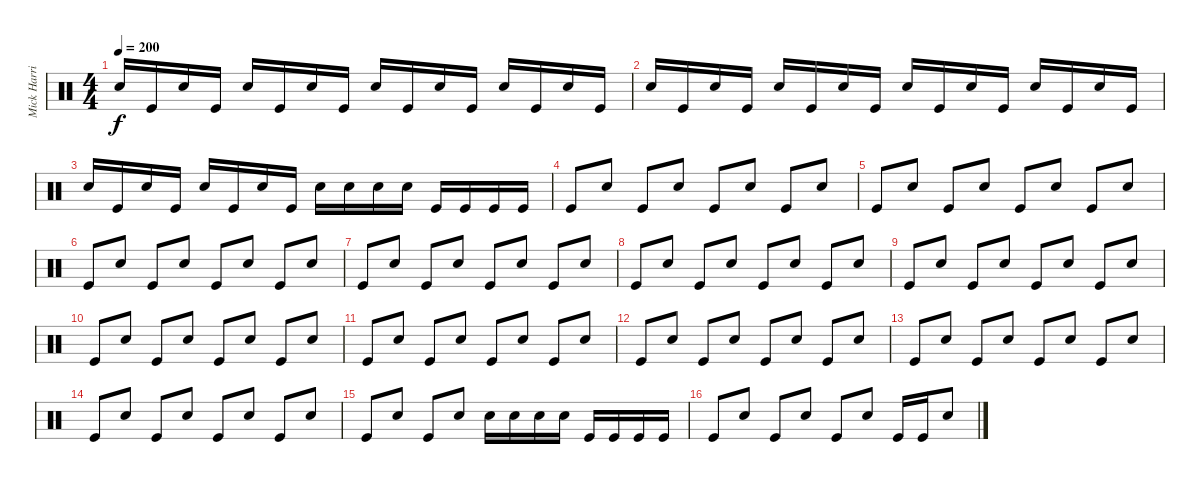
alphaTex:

\track ("Mick Harris" "Mick Harri") {instrument percussion}
\staff {score}
\articulation defaults
\ts (4 4)
\tempo 200
\clef neutral
\ks c "Snare (hit) 2".16{dy f} "Kick (hit)".16 "Snare (hit) 2".16 "Kick (hit)".16 "Snare (hit) 2".16 "Kick (hit)".16 "Snare (hit) 2".16 "Kick (hit)".16 "Snare (hit) 2".16 "Kick (hit)".16 "Snare (hit) 2".16 "Kick (hit)".16 "Snare (hit) 2".16 "Kick (hit)".16 "Snare (hit) 2".16 "Kick (hit)".16
|
"Snare (hit) 2".16 "Kick (hit)".16 "Snare (hit) 2".16 "Kick (hit)".16 "Snare (hit) 2".16 "Kick (hit)".16 "Snare (hit) 2".16 "Kick (hit)".16 "Snare (hit) 2".16 "Kick (hit)".16 "Snare (hit) 2".16 "Kick (hit)".16 "Snare (hit) 2".16 "Kick (hit)".16 "Snare (hit) 2".16 "Kick (hit)".16 |
"Snare (hit) 2".16 "Kick (hit)".16 "Snare (hit) 2".16 "Kick (hit)".16 "Snare (hit) 2".16 "Kick (hit)".16 "Snare (hit) 2".16 "Kick (hit)".16 "Snare (hit) 2".16 "Snare (hit) 2".16 "Snare (hit) 2".16 "Snare (hit) 2".16 "Kick (hit)".16 "Kick (hit)".16 "Kick (hit)".16 "Kick (hit)".16 |
"Kick (hit)".8 "Snare (hit) 2".8 "Kick (hit)".8 "Snare (hit) 2".8 "Kick (hit)".8 "Snare (hit) 2".8 "Kick (hit)".8 "Snare (hit) 2".8 |
"Kick (hit)".8 "Snare (hit) 2".8 "Kick (hit)".8 "Snare (hit) 2".8 "Kick (hit)".8 "Snare (hit) 2".8 "Kick (hit)".8 "Snare (hit) 2".8 |
"Kick (hit)".8 "Snare (hit) 2".8 "Kick (hit)".8 "Snare (hit) 2".8 "Kick (hit)".8 "Snare (hit) 2".8 "Kick (hit)".8 "Snare (hit) 2".8 |
"Kick (hit)".8 "Snare (hit) 2".8 "Kick (hit)".8 "Snare (hit) 2".8 "Kick (hit)".8 "Snare (hit) 2".8 "Kick (hit)".8 "Snare (hit) 2".8 |
"Kick (hit)".8 "Snare (hit) 2".8 "Kick (hit)".8 "Snare (hit) 2".8 "Kick (hit)".8 "Snare (hit) 2".8 "Kick (hit)".8 "Snare (hit) 2".8 |
"Kick (hit)".8 "Snare (hit) 2".8 "Kick (hit)".8 "Snare (hit) 2".8 "Kick (hit)".8 "Snare (hit) 2".8 "Kick (hit)".8 "Snare (hit) 2".8 |
"Kick (hit)".8 "Snare (hit) 2".8 "Kick (hit)".8 "Snare (hit) 2".8 "Kick (hit)".8 "Snare (hit) 2".8 "Kick (hit)".8 "Snare (hit) 2".8 |
"Kick (hit)".8 "Snare (hit) 2".8 "Kick (hit)".8 "Snare (hit) 2".8 "Kick (hit)".8 "Snare (hit) 2".8 "Kick (hit)".8 "Snare (hit) 2".8 |
"Kick (hit)".8 "Snare (hit) 2".8 "Kick (hit)".8 "Snare (hit) 2".8 "Kick (hit)".8 "Snare (hit) 2".8 "Kick (hit)".8 "Snare (hit) 2".8 |
"Kick (hit)".8 "Snare (hit) 2".8 "Kick (hit)".8 "Snare (hit) 2".8 "Kick (hit)".8 "Snare (hit) 2".8 "Kick (hit)".8 "Snare (hit) 2".8 |
"Kick (hit)".8 "Snare (hit) 2".8 "Kick (hit)".8 "Snare (hit) 2".8 "Kick (hit)".8 "Snare (hit) 2".8 "Kick (hit)".8 "Snare (hit) 2".8 |
"Kick (hit)".8 "Snare (hit) 2".8 "Kick (hit)".8 "Snare (hit) 2".8 "Snare (hit) 2".16 "Snare (hit) 2".16 "Snare (hit) 2".16 "Snare (hit) 2".16 "Kick (hit)".16 "Kick (hit)".16 "Kick (hit)".16 "Kick (hit)".16 |
"Kick (hit)".8 "Snare (hit) 2".8 "Kick (hit)".8 "Snare (hit) 2".8 "Kick (hit)".8 "Snare (hit) 2".8 "Kick (hit)".16 "Kick (hit)".16 "Snare (hit) 2".8
